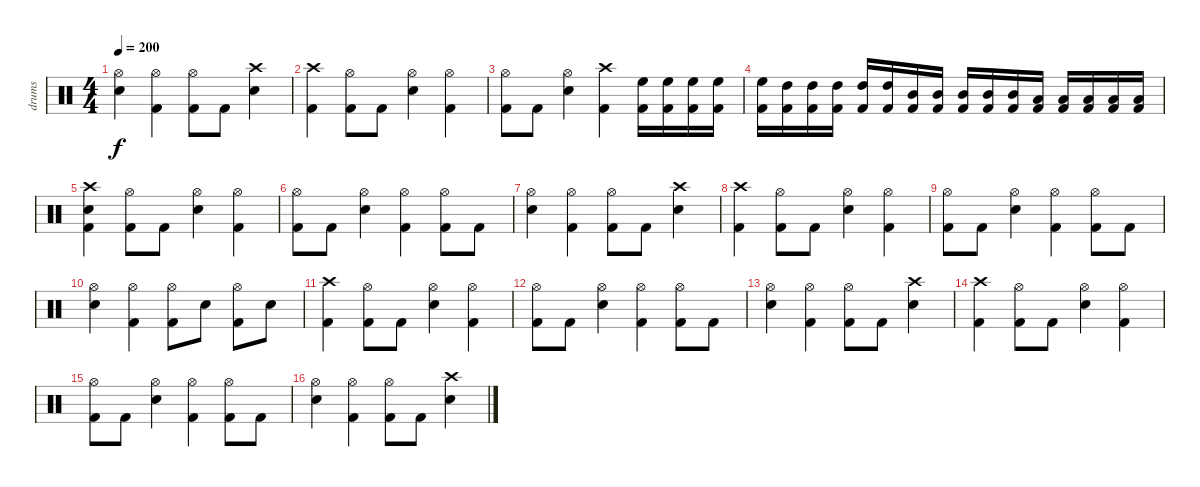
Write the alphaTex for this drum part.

\track ("drums" "drums") {instrument percussion}
\staff {score}
\articulation defaults
\ts (4 4)
\tempo 200
\clef neutral
\ks c
("Snare (hit) 2" "Hi-Hat (open)").4{dy f} ("Kick (hit) 2" "Hi-Hat (open)").4 ("Kick (hit) 2" "Hi-Hat (open)").8 "Kick (hit) 2".8 ("Snare (hit) 2" "Crash high (hit)").4 |
("Kick (hit) 2" "Crash high (hit)").4 ("Kick (hit) 2" "Hi-Hat (open)").8 "Kick (hit) 2".8 ("Snare (hit) 2" "Hi-Hat (open)").4 ("Kick (hit) 2" "Hi-Hat (open)").4 |
("Kick (hit) 2" "Hi-Hat (open)").8 "Kick (hit) 2".8 ("Snare (hit) 2" "Hi-Hat (open)").4 ("Kick (hit) 2" "Crash high (hit)").4 ("Kick (hit) 2" "High Floor Tom (hit)").16 ("Kick (hit) 2" "High Floor Tom (hit)").16 ("Kick (hit) 2" "High Floor Tom (hit)").16 ("Kick (hit) 2" "High Floor Tom (hit)").16 |
("Kick (hit) 2" "High Floor Tom (hit)").16 ("Kick (hit) 2" "High Tom (hit)").16 ("Kick (hit) 2" "High Tom (hit)").16 ("Kick (hit) 2" "High Tom (hit)").16 ("Kick (hit) 2" "High Tom (hit)").16 ("Kick (hit) 2" "High Tom (hit)").16 ("Kick (hit) 2" "Mid Tom (hit)").16 ("Kick (hit) 2" "Mid Tom (hit)").16 ("Kick (hit) 2" "Mid Tom (hit)").16 ("Kick (hit) 2" "Mid Tom (hit)").16 ("Kick (hit) 2" "Mid Tom (hit)").16 ("Kick (hit) 2" "Low Tom (hit)").16 ("Kick (hit) 2" "Low Tom (hit)").16 ("Kick (hit) 2" "Low Tom (hit)").16 ("Kick (hit) 2" "Low Tom (hit)").16 ("Kick (hit) 2" "Low Tom (hit)").16 |
("Kick (hit) 2" "Snare (hit) 2" "Crash high (hit)").4 ("Kick (hit) 2" "Hi-Hat (open)").8 "Kick (hit) 2".8 ("Snare (hit) 2" "Hi-Hat (open)").4 ("Kick (hit) 2" "Hi-Hat (open)").4 |
("Kick (hit) 2" "Hi-Hat (open)").8 "Kick (hit) 2".8 ("Snare (hit) 2" "Hi-Hat (open)").4 ("Kick (hit) 2" "Hi-Hat (open)").4 ("Kick (hit) 2" "Hi-Hat (open)").8 "Kick (hit) 2".8 |
("Snare (hit) 2" "Hi-Hat (open)").4 ("Kick (hit) 2" "Hi-Hat (open)").4 ("Kick (hit) 2" "Hi-Hat (open)").8 "Kick (hit) 2".8 ("Snare (hit) 2" "Crash high (hit)").4 |
("Kick (hit) 2" "Crash high (hit)").4 ("Kick (hit) 2" "Hi-Hat (open)").8 "Kick (hit) 2".8 ("Snare (hit) 2" "Hi-Hat (open)").4 ("Kick (hit) 2" "Hi-Hat (open)").4 |
("Kick (hit) 2" "Hi-Hat (open)").8 "Kick (hit) 2".8 ("Snare (hit) 2" "Hi-Hat (open)").4 ("Kick (hit) 2" "Hi-Hat (open)").4 ("Kick (hit) 2" "Hi-Hat (open)").8 "Kick (hit) 2".8 |
("Snare (hit) 2" "Hi-Hat (open)").4 ("Kick (hit) 2" "Hi-Hat (open)").4 ("Kick (hit) 2" "Hi-Hat (open)").8 "Snare (hit) 2".8 ("Kick (hit) 2" "Hi-Hat (open)").8 "Snare (hit) 2".8 |
("Kick (hit) 2" "Crash high (hit)").4 ("Kick (hit) 2" "Hi-Hat (open)").8 "Kick (hit) 2".8 ("Snare (hit) 2" "Hi-Hat (open)").4 ("Kick (hit) 2" "Hi-Hat (open)").4 |
("Kick (hit) 2" "Hi-Hat (open)").8 "Kick (hit) 2".8 ("Snare (hit) 2" "Hi-Hat (open)").4 ("Kick (hit) 2" "Hi-Hat (open)").4 ("Kick (hit) 2" "Hi-Hat (open)").8 "Kick (hit) 2".8 |
("Snare (hit) 2" "Hi-Hat (open)").4 ("Kick (hit) 2" "Hi-Hat (open)").4 ("Kick (hit) 2" "Hi-Hat (open)").8 "Kick (hit) 2".8 ("Snare (hit) 2" "Crash high (hit)").4 |
("Kick (hit) 2" "Crash high (hit)").4 ("Kick (hit) 2" "Hi-Hat (open)").8 "Kick (hit) 2".8 ("Snare (hit) 2" "Hi-Hat (open)").4 ("Kick (hit) 2" "Hi-Hat (open)").4 |
("Kick (hit) 2" "Hi-Hat (open)").8 "Kick (hit) 2".8 ("Snare (hit) 2" "Hi-Hat (open)").4 ("Kick (hit) 2" "Hi-Hat (open)").4 ("Kick (hit) 2" "Hi-Hat (open)").8 "Kick (hit) 2".8 |
("Snare (hit) 2" "Hi-Hat (open)").4 ("Kick (hit) 2" "Hi-Hat (open)").4 ("Kick (hit) 2" "Hi-Hat (open)").8 "Kick (hit) 2".8 ("Snare (hit) 2" "Crash high (hit)").4
